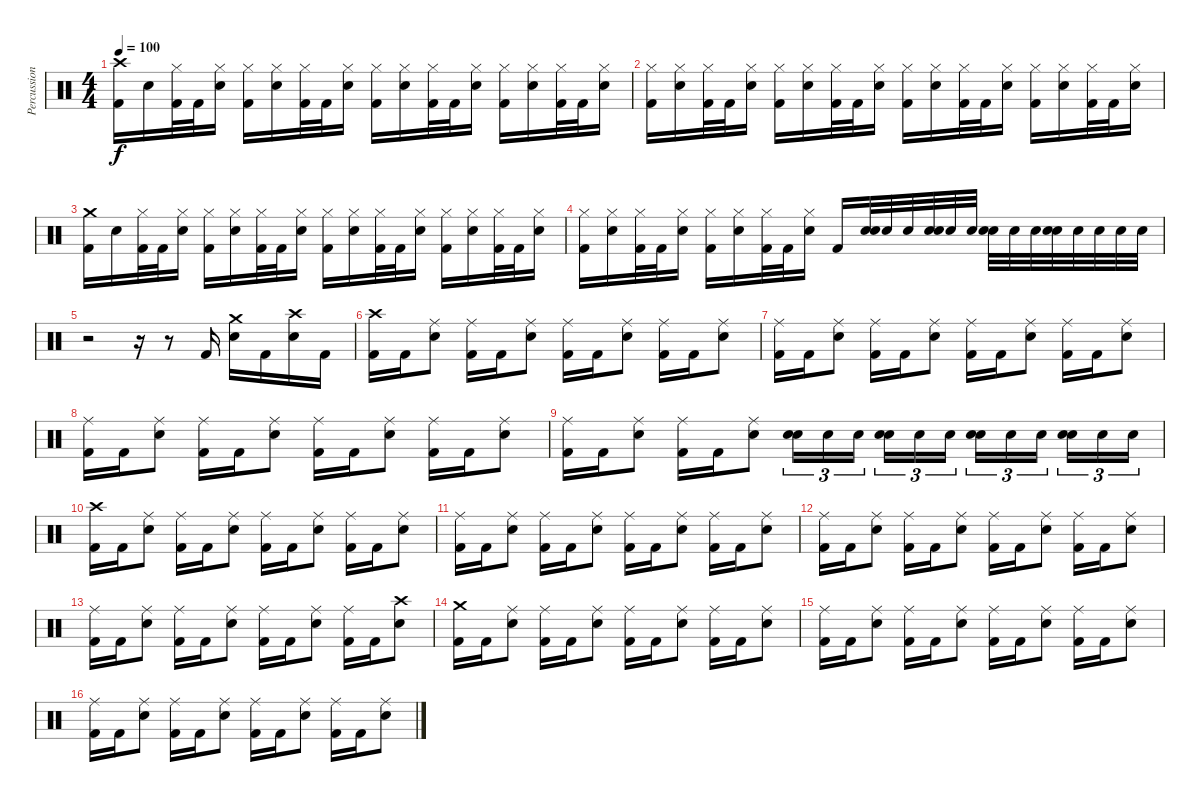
\track ("Percussion" "Percussion") {instrument percussion}
\staff {score}
\articulation defaults
\ts (4 4)
\tempo 100
\clef neutral
\ks c
("Crash high (hit)" "Kick (hit) 2").16{dy f} "Snare (hit) 2".16 ("Hi-Hat (closed)" "Kick (hit) 2").32 "Kick (hit) 2".32 ("Hi-Hat (closed)" "Snare (hit) 2").16 ("Hi-Hat (closed)" "Kick (hit) 2").16 ("Hi-Hat (closed)" "Snare (hit) 2").16 ("Hi-Hat (closed)" "Kick (hit) 2").32 "Kick (hit) 2".32 ("Hi-Hat (closed)" "Snare (hit) 2").16 ("Hi-Hat (closed)" "Kick (hit) 2").16 ("Hi-Hat (closed)" "Snare (hit) 2").16 ("Hi-Hat (closed)" "Kick (hit) 2").32 "Kick (hit) 2".32 ("Hi-Hat (closed)" "Snare (hit) 2").16 ("Hi-Hat (closed)" "Kick (hit) 2").16 ("Hi-Hat (closed)" "Snare (hit) 2").16 ("Hi-Hat (closed)" "Kick (hit) 2").32 "Kick (hit) 2".32 ("Hi-Hat (closed)" "Snare (hit) 2").16 |
("Hi-Hat (closed)" "Kick (hit) 2").16 ("Hi-Hat (closed)" "Snare (hit) 2").16 ("Hi-Hat (closed)" "Kick (hit) 2").32 "Kick (hit) 2".32 ("Hi-Hat (closed)" "Snare (hit) 2").16 ("Hi-Hat (closed)" "Kick (hit) 2").16 ("Hi-Hat (closed)" "Snare (hit) 2").16 ("Hi-Hat (closed)" "Kick (hit) 2").32 "Kick (hit) 2".32 ("Hi-Hat (closed)" "Snare (hit) 2").16 ("Hi-Hat (closed)" "Kick (hit) 2").16 ("Hi-Hat (closed)" "Snare (hit) 2").16 ("Hi-Hat (closed)" "Kick (hit) 2").32 "Kick (hit) 2".32 ("Hi-Hat (closed)" "Snare (hit) 2").16 ("Hi-Hat (closed)" "Kick (hit) 2").16 ("Hi-Hat (closed)" "Snare (hit) 2").16 ("Hi-Hat (closed)" "Kick (hit) 2").32 "Kick (hit) 2".32 ("Hi-Hat (closed)" "Snare (hit) 2").16 |
("Crash medium (hit)" "Kick (hit) 2").16 "Snare (hit) 2".16 ("Hi-Hat (closed)" "Kick (hit) 2").32 "Kick (hit) 2".32 ("Hi-Hat (closed)" "Snare (hit) 2").16 ("Hi-Hat (closed)" "Kick (hit) 2").16 ("Hi-Hat (closed)" "Snare (hit) 2").16 ("Hi-Hat (closed)" "Kick (hit) 2").32 "Kick (hit) 2".32 ("Hi-Hat (closed)" "Snare (hit) 2").16 ("Hi-Hat (closed)" "Kick (hit) 2").16 ("Hi-Hat (closed)" "Snare (hit) 2").16 ("Hi-Hat (closed)" "Kick (hit) 2").32 "Kick (hit) 2".32 ("Hi-Hat (closed)" "Snare (hit) 2").16 ("Hi-Hat (closed)" "Kick (hit) 2").16 ("Hi-Hat (closed)" "Snare (hit) 2").16 ("Hi-Hat (closed)" "Kick (hit) 2").32 "Kick (hit) 2".32 ("Hi-Hat (closed)" "Snare (hit) 2").16 |
("Hi-Hat (closed)" "Kick (hit) 2").16 ("Hi-Hat (closed)" "Snare (hit) 2").16 ("Hi-Hat (closed)" "Kick (hit) 2").32 "Kick (hit) 2".32 ("Hi-Hat (closed)" "Snare (hit) 2").16 ("Hi-Hat (closed)" "Kick (hit) 2").16 ("Hi-Hat (closed)" "Snare (hit) 2").16 ("Hi-Hat (closed)" "Kick (hit) 2").32 "Kick (hit) 2".32 ("Hi-Hat (closed)" "Snare (hit) 2").16 "Kick (hit) 2".16 ("Snare (hit) 2" "Snare (hit) 2").32 "Snare (hit) 2".32 "Snare (hit) 2".32 ("Snare (hit) 2" "Snare (hit) 2").32 "Snare (hit) 2".32 "Snare (hit) 2".32 ("Snare (hit) 2" "Snare (hit) 2").32 "Snare (hit) 2".32 "Snare (hit) 2".32 ("Snare (hit) 2" "Snare (hit) 2").32 "Snare (hit) 2".32 "Snare (hit) 2".32 "Snare (hit) 2".32 "Snare (hit) 2".32 |
r.2 r.16 r.8 "Kick (hit) 2".16 ("Crash medium (hit)" "Snare (hit) 2").16 "Kick (hit) 2".16 ("Crash high (hit)" "Snare (hit) 2").16 "Kick (hit) 2".16 |
("Crash high (hit)" "Kick (hit) 2").16 "Kick (hit) 2".16 ("Ride (middle)" "Snare (hit) 2").8 ("Ride (middle)" "Kick (hit) 2").16 "Kick (hit) 2".16 ("Ride (middle)" "Snare (hit) 2").8 ("Ride (middle)" "Kick (hit) 2").16 "Kick (hit) 2".16 ("Ride (middle)" "Snare (hit) 2").8 ("Ride (middle)" "Kick (hit) 2").16 "Kick (hit) 2".16 ("Ride (middle)" "Snare (hit) 2").8 |
("Ride (middle)" "Kick (hit) 2").16 "Kick (hit) 2".16 ("Ride (middle)" "Snare (hit) 2").8 ("Ride (middle)" "Kick (hit) 2").16 "Kick (hit) 2".16 ("Ride (middle)" "Snare (hit) 2").8 ("Ride (middle)" "Kick (hit) 2").16 "Kick (hit) 2".16 ("Ride (middle)" "Snare (hit) 2").8 ("Ride (middle)" "Kick (hit) 2").16 "Kick (hit) 2".16 ("Ride (middle)" "Snare (hit) 2").8 |
("Ride (middle)" "Kick (hit) 2").16 "Kick (hit) 2".16 ("Ride (middle)" "Snare (hit) 2").8 ("Ride (middle)" "Kick (hit) 2").16 "Kick (hit) 2".16 ("Ride (middle)" "Snare (hit) 2").8 ("Ride (middle)" "Kick (hit) 2").16 "Kick (hit) 2".16 ("Ride (middle)" "Snare (hit) 2").8 ("Ride (middle)" "Kick (hit) 2").16 "Kick (hit) 2".16 ("Ride (middle)" "Snare (hit) 2").8 |
("Ride (middle)" "Kick (hit) 2").16 "Kick (hit) 2".16 ("Ride (middle)" "Snare (hit) 2").8 ("Ride (middle)" "Kick (hit) 2").16 "Kick (hit) 2".16 ("Ride (middle)" "Snare (hit) 2").8 ("Snare (hit) 2" "Snare (hit) 2").16{tu (3 2)} "Snare (hit) 2".16{tu (3 2)} "Snare (hit) 2".16{tu (3 2)} ("Snare (hit) 2" "Snare (hit) 2").16{tu (3 2)} "Snare (hit) 2".16{tu (3 2)} "Snare (hit) 2".16{tu (3 2)} ("Snare (hit) 2" "Snare (hit) 2").16{tu (3 2)} "Snare (hit) 2".16{tu (3 2)} "Snare (hit) 2".16{tu (3 2)} ("Snare (hit) 2" "Snare (hit) 2").16{tu (3 2)} "Snare (hit) 2".16{tu (3 2)} "Snare (hit) 2".16{tu (3 2)} |
("Crash high (hit)" "Kick (hit) 2").16 "Kick (hit) 2".16 ("Ride (middle)" "Snare (hit) 2").8 ("Ride (middle)" "Kick (hit) 2").16 "Kick (hit) 2".16 ("Ride (middle)" "Snare (hit) 2").8 ("Ride (middle)" "Kick (hit) 2").16 "Kick (hit) 2".16 ("Ride (middle)" "Snare (hit) 2").8 ("Ride (middle)" "Kick (hit) 2").16 "Kick (hit) 2".16 ("Ride (middle)" "Snare (hit) 2").8 |
("Ride (middle)" "Kick (hit) 2").16 "Kick (hit) 2".16 ("Ride (middle)" "Snare (hit) 2").8 ("Ride (middle)" "Kick (hit) 2").16 "Kick (hit) 2".16 ("Ride (middle)" "Snare (hit) 2").8 ("Ride (middle)" "Kick (hit) 2").16 "Kick (hit) 2".16 ("Ride (middle)" "Snare (hit) 2").8 ("Ride (middle)" "Kick (hit) 2").16 "Kick (hit) 2".16 ("Ride (middle)" "Snare (hit) 2").8 |
("Ride (middle)" "Kick (hit) 2").16 "Kick (hit) 2".16 ("Ride (middle)" "Snare (hit) 2").8 ("Ride (middle)" "Kick (hit) 2").16 "Kick (hit) 2".16 ("Ride (middle)" "Snare (hit) 2").8 ("Ride (middle)" "Kick (hit) 2").16 "Kick (hit) 2".16 ("Ride (middle)" "Snare (hit) 2").8 ("Ride (middle)" "Kick (hit) 2").16 "Kick (hit) 2".16 ("Ride (middle)" "Snare (hit) 2").8 |
("Ride (middle)" "Kick (hit) 2").16 "Kick (hit) 2".16 ("Ride (middle)" "Snare (hit) 2").8 ("Ride (middle)" "Kick (hit) 2").16 "Kick (hit) 2".16 ("Ride (middle)" "Snare (hit) 2").8 ("Ride (middle)" "Kick (hit) 2").16 "Kick (hit) 2".16 ("Ride (middle)" "Snare (hit) 2").8 ("Ride (middle)" "Kick (hit) 2").16 "Kick (hit) 2".16 ("Crash high (hit)" "Snare (hit) 2").8 |
("Crash medium (hit)" "Kick (hit) 2").16 "Kick (hit) 2".16 ("Ride (middle)" "Snare (hit) 2").8 ("Ride (middle)" "Kick (hit) 2").16 "Kick (hit) 2".16 ("Ride (middle)" "Snare (hit) 2").8 ("Ride (middle)" "Kick (hit) 2").16 "Kick (hit) 2".16 ("Ride (middle)" "Snare (hit) 2").8 ("Ride (middle)" "Kick (hit) 2").16 "Kick (hit) 2".16 ("Ride (middle)" "Snare (hit) 2").8 |
("Ride (middle)" "Kick (hit) 2").16 "Kick (hit) 2".16 ("Ride (middle)" "Snare (hit) 2").8 ("Ride (middle)" "Kick (hit) 2").16 "Kick (hit) 2".16 ("Ride (middle)" "Snare (hit) 2").8 ("Ride (middle)" "Kick (hit) 2").16 "Kick (hit) 2".16 ("Ride (middle)" "Snare (hit) 2").8 ("Ride (middle)" "Kick (hit) 2").16 "Kick (hit) 2".16 ("Ride (middle)" "Snare (hit) 2").8 |
("Ride (middle)" "Kick (hit) 2").16 "Kick (hit) 2".16 ("Ride (middle)" "Snare (hit) 2").8 ("Ride (middle)" "Kick (hit) 2").16 "Kick (hit) 2".16 ("Ride (middle)" "Snare (hit) 2").8 ("Ride (middle)" "Kick (hit) 2").16 "Kick (hit) 2".16 ("Ride (middle)" "Snare (hit) 2").8 ("Ride (middle)" "Kick (hit) 2").16 "Kick (hit) 2".16 ("Ride (middle)" "Snare (hit) 2").8
